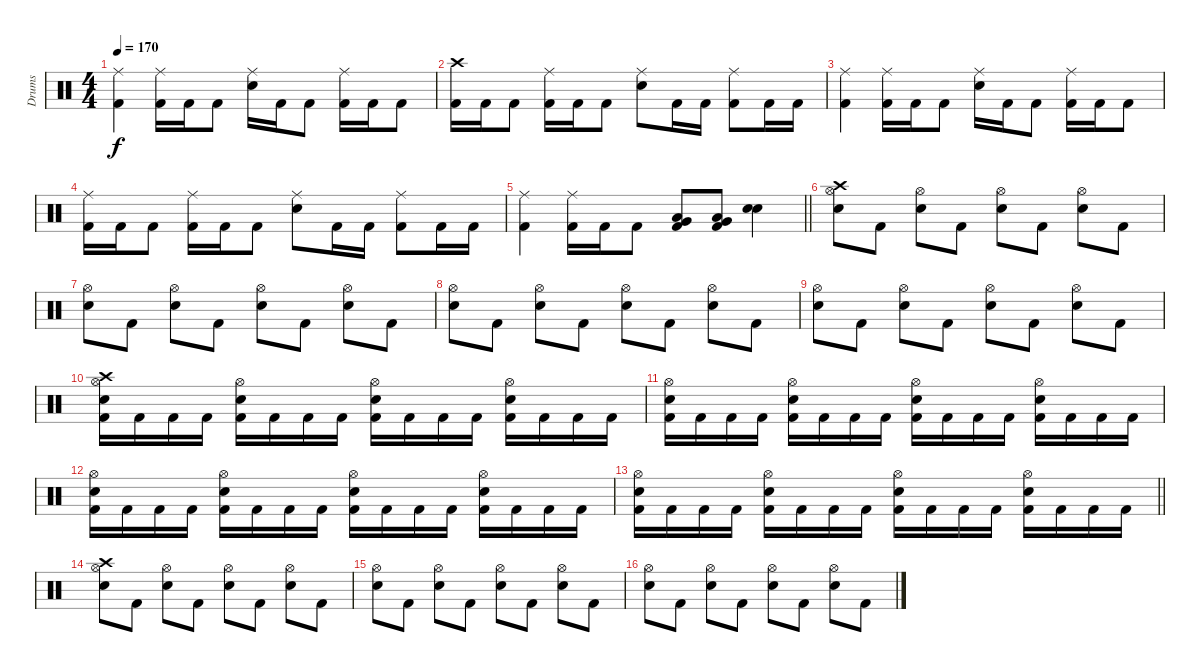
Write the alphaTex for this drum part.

\track ("Drums" "Drums") {instrument percussion}
\staff {score}
\articulation defaults
\ts (4 4)
\tempo 170
\clef neutral
\ks c
("Ride (middle)" "Kick (hit) 2").4{dy f} ("Ride (middle)" "Kick (hit) 2").16 "Kick (hit) 2".16 "Kick (hit) 2".8 ("Ride (middle)" "Electric Snare (hit)").16 "Kick (hit) 2".16 "Kick (hit) 2".8 ("Ride (middle)" "Kick (hit) 2").16 "Kick (hit) 2".16 "Kick (hit) 2".8 |
("Crash high (hit)" "Kick (hit) 2").16 "Kick (hit) 2".16 "Kick (hit) 2".8 ("Ride (middle)" "Kick (hit) 2").16 "Kick (hit) 2".16 "Kick (hit) 2".8 ("Ride (middle)" "Electric Snare (hit)").8 "Kick (hit) 2".16 "Kick (hit) 2".16 ("Ride (middle)" "Kick (hit) 2").8 "Kick (hit) 2".16 "Kick (hit) 2".16 |
("Ride (middle)" "Kick (hit) 2").4 ("Ride (middle)" "Kick (hit) 2").16 "Kick (hit) 2".16 "Kick (hit) 2".8 ("Ride (middle)" "Electric Snare (hit)").16 "Kick (hit) 2".16 "Kick (hit) 2".8 ("Ride (middle)" "Kick (hit) 2").16 "Kick (hit) 2".16 "Kick (hit) 2".8 |
("Ride (middle)" "Kick (hit) 2").16 "Kick (hit) 2".16 "Kick (hit) 2".8 ("Ride (middle)" "Kick (hit) 2").16 "Kick (hit) 2".16 "Kick (hit) 2".8 ("Ride (middle)" "Electric Snare (hit)").8 "Kick (hit) 2".16 "Kick (hit) 2".16 ("Ride (middle)" "Kick (hit) 2").8 "Kick (hit) 2".16 "Kick (hit) 2".16 |
\barLineRight lightlight
("Ride (middle)" "Kick (hit) 2").4 ("Ride (middle)" "Kick (hit) 2").16 "Kick (hit) 2".16 "Kick (hit) 2".8 ("Very Low Tom (hit)" "Low Tom (hit)" "Kick (hit) 2").8 ("Very Low Tom (hit)" "Low Tom (hit)" "Kick (hit) 2").8 ("Electric Snare (hit)" "Electric Snare (hit)").4 |
("Crash high (hit)" "Hi-Hat (open)" "Electric Snare (hit)").8 "Kick (hit) 2".8 ("Hi-Hat (open)" "Electric Snare (hit)").8 "Kick (hit) 2".8 ("Hi-Hat (open)" "Electric Snare (hit)").8 "Kick (hit) 2".8 ("Hi-Hat (open)" "Electric Snare (hit)").8 "Kick (hit) 2".8 |
("Hi-Hat (open)" "Electric Snare (hit)").8 "Kick (hit) 2".8 ("Hi-Hat (open)" "Electric Snare (hit)").8 "Kick (hit) 2".8 ("Hi-Hat (open)" "Electric Snare (hit)").8 "Kick (hit) 2".8 ("Hi-Hat (open)" "Electric Snare (hit)").8 "Kick (hit) 2".8 |
("Hi-Hat (open)" "Electric Snare (hit)").8 "Kick (hit) 2".8 ("Hi-Hat (open)" "Electric Snare (hit)").8 "Kick (hit) 2".8 ("Hi-Hat (open)" "Electric Snare (hit)").8 "Kick (hit) 2".8 ("Hi-Hat (open)" "Electric Snare (hit)").8 "Kick (hit) 2".8 |
("Hi-Hat (open)" "Electric Snare (hit)").8 "Kick (hit) 2".8 ("Hi-Hat (open)" "Electric Snare (hit)").8 "Kick (hit) 2".8 ("Hi-Hat (open)" "Electric Snare (hit)").8 "Kick (hit) 2".8 ("Hi-Hat (open)" "Electric Snare (hit)").8 "Kick (hit) 2".8 |
("Crash high (hit)" "Hi-Hat (open)" "Electric Snare (hit)" "Kick (hit) 2").16 "Kick (hit) 2".16 "Kick (hit) 2".16 "Kick (hit) 2".16 ("Hi-Hat (open)" "Electric Snare (hit)" "Kick (hit) 2").16 "Kick (hit) 2".16 "Kick (hit) 2".16 "Kick (hit) 2".16 ("Hi-Hat (open)" "Electric Snare (hit)" "Kick (hit) 2").16 "Kick (hit) 2".16 "Kick (hit) 2".16 "Kick (hit) 2".16 ("Hi-Hat (open)" "Electric Snare (hit)" "Kick (hit) 2").16 "Kick (hit) 2".16 "Kick (hit) 2".16 "Kick (hit) 2".16 |
("Hi-Hat (open)" "Electric Snare (hit)" "Kick (hit) 2").16 "Kick (hit) 2".16 "Kick (hit) 2".16 "Kick (hit) 2".16 ("Hi-Hat (open)" "Electric Snare (hit)" "Kick (hit) 2").16 "Kick (hit) 2".16 "Kick (hit) 2".16 "Kick (hit) 2".16 ("Hi-Hat (open)" "Electric Snare (hit)" "Kick (hit) 2").16 "Kick (hit) 2".16 "Kick (hit) 2".16 "Kick (hit) 2".16 ("Hi-Hat (open)" "Electric Snare (hit)" "Kick (hit) 2").16 "Kick (hit) 2".16 "Kick (hit) 2".16 "Kick (hit) 2".16 |
("Hi-Hat (open)" "Electric Snare (hit)" "Kick (hit) 2").16 "Kick (hit) 2".16 "Kick (hit) 2".16 "Kick (hit) 2".16 ("Hi-Hat (open)" "Electric Snare (hit)" "Kick (hit) 2").16 "Kick (hit) 2".16 "Kick (hit) 2".16 "Kick (hit) 2".16 ("Hi-Hat (open)" "Electric Snare (hit)" "Kick (hit) 2").16 "Kick (hit) 2".16 "Kick (hit) 2".16 "Kick (hit) 2".16 ("Hi-Hat (open)" "Electric Snare (hit)" "Kick (hit) 2").16 "Kick (hit) 2".16 "Kick (hit) 2".16 "Kick (hit) 2".16 |
\barLineRight lightlight
("Hi-Hat (open)" "Electric Snare (hit)" "Kick (hit) 2").16 "Kick (hit) 2".16 "Kick (hit) 2".16 "Kick (hit) 2".16 ("Hi-Hat (open)" "Electric Snare (hit)" "Kick (hit) 2").16 "Kick (hit) 2".16 "Kick (hit) 2".16 "Kick (hit) 2".16 ("Hi-Hat (open)" "Electric Snare (hit)" "Kick (hit) 2").16 "Kick (hit) 2".16 "Kick (hit) 2".16 "Kick (hit) 2".16 ("Hi-Hat (open)" "Electric Snare (hit)" "Kick (hit) 2").16 "Kick (hit) 2".16 "Kick (hit) 2".16 "Kick (hit) 2".16 |
("Crash high (hit)" "Hi-Hat (open)" "Electric Snare (hit)").8 "Kick (hit) 2".8 ("Hi-Hat (open)" "Electric Snare (hit)").8 "Kick (hit) 2".8 ("Hi-Hat (open)" "Electric Snare (hit)").8 "Kick (hit) 2".8 ("Hi-Hat (open)" "Electric Snare (hit)").8 "Kick (hit) 2".8 |
("Hi-Hat (open)" "Electric Snare (hit)").8 "Kick (hit) 2".8 ("Hi-Hat (open)" "Electric Snare (hit)").8 "Kick (hit) 2".8 ("Hi-Hat (open)" "Electric Snare (hit)").8 "Kick (hit) 2".8 ("Hi-Hat (open)" "Electric Snare (hit)").8 "Kick (hit) 2".8 |
("Hi-Hat (open)" "Electric Snare (hit)").8 "Kick (hit) 2".8 ("Hi-Hat (open)" "Electric Snare (hit)").8 "Kick (hit) 2".8 ("Hi-Hat (open)" "Electric Snare (hit)").8 "Kick (hit) 2".8 ("Hi-Hat (open)" "Electric Snare (hit)").8 "Kick (hit) 2".8
